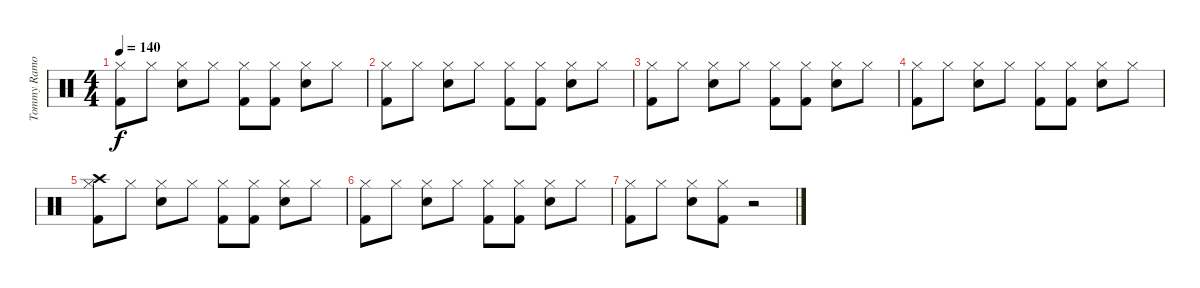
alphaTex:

\track ("Tommy Ramone" "Tommy Ramo") {instrument percussion}
\staff {score}
\articulation defaults
\ts (4 4)
\tempo 140
\clef neutral
\ks c
("Hi-Hat (closed)" "Kick (hit) 2").8{dy f} "Hi-Hat (closed)".8 ("Hi-Hat (closed)" "Electric Snare (hit)").8 "Hi-Hat (closed)".8 ("Hi-Hat (closed)" "Kick (hit) 2").8 ("Hi-Hat (closed)" "Kick (hit) 2").8 ("Hi-Hat (closed)" "Electric Snare (hit)").8 "Hi-Hat (closed)".8 |
("Hi-Hat (closed)" "Kick (hit) 2").8 "Hi-Hat (closed)".8 ("Hi-Hat (closed)" "Electric Snare (hit)").8 "Hi-Hat (closed)".8 ("Hi-Hat (closed)" "Kick (hit) 2").8 ("Hi-Hat (closed)" "Kick (hit) 2").8 ("Hi-Hat (closed)" "Electric Snare (hit)").8 "Hi-Hat (closed)".8 |
("Hi-Hat (closed)" "Kick (hit) 2").8 "Hi-Hat (closed)".8 ("Hi-Hat (closed)" "Electric Snare (hit)").8 "Hi-Hat (closed)".8 ("Hi-Hat (closed)" "Kick (hit) 2").8 ("Hi-Hat (closed)" "Kick (hit) 2").8 ("Hi-Hat (closed)" "Electric Snare (hit)").8 "Hi-Hat (closed)".8 |
("Hi-Hat (closed)" "Kick (hit) 2").8 "Hi-Hat (closed)".8 ("Hi-Hat (closed)" "Electric Snare (hit)").8 "Hi-Hat (closed)".8 ("Hi-Hat (closed)" "Kick (hit) 2").8 ("Hi-Hat (closed)" "Kick (hit) 2").8 ("Hi-Hat (closed)" "Electric Snare (hit)").8 "Hi-Hat (closed)".8 |
("Hi-Hat (closed)" "Kick (hit) 2" "Crash high (hit)").8 "Hi-Hat (closed)".8 ("Hi-Hat (closed)" "Electric Snare (hit)").8 "Hi-Hat (closed)".8 ("Hi-Hat (closed)" "Kick (hit) 2").8 ("Hi-Hat (closed)" "Kick (hit) 2").8 ("Hi-Hat (closed)" "Electric Snare (hit)").8 "Hi-Hat (closed)".8 |
("Hi-Hat (closed)" "Kick (hit) 2").8 "Hi-Hat (closed)".8 ("Hi-Hat (closed)" "Electric Snare (hit)").8 "Hi-Hat (closed)".8 ("Hi-Hat (closed)" "Kick (hit) 2").8 ("Hi-Hat (closed)" "Kick (hit) 2").8 ("Hi-Hat (closed)" "Electric Snare (hit)").8 "Hi-Hat (closed)".8 |
("Hi-Hat (closed)" "Kick (hit) 2").8 "Hi-Hat (closed)".8 ("Hi-Hat (closed)" "Electric Snare (hit)").8 ("Hi-Hat (closed)" "Kick (hit) 2").8 r.2
